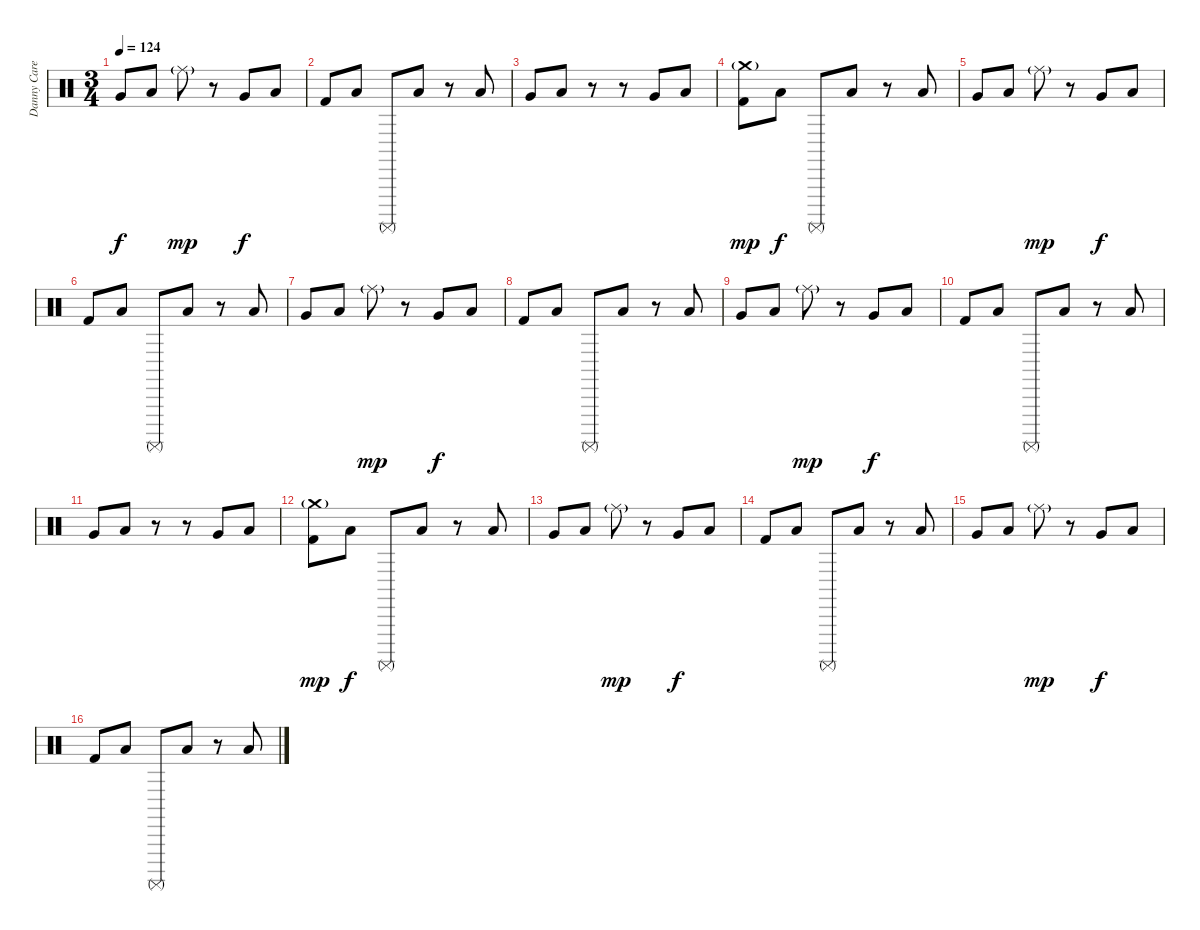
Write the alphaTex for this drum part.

\track ("Danny Carey" "Danny Care") {instrument percussion}
\staff {score}
\articulation defaults
\ts (3 4)
\tempo 124
\clef neutral
\ks c "Very Low Tom (hit)".8{dy f} "Low Tom (hit)".8 "Ride (middle)"{g}.8{dy mp}
r.8 "Very Low Tom (hit)".8{dy f} "Low Floor Tom (hit)".8 |
"Kick (hit) 2".8 "Low Tom (hit)".8 "Surdo (mute)".8 "Low Tom (hit)".8 r.8 "Low Tom (hit)".8 |
"Very Low Tom (hit)".8 "Low Tom (hit)".8 r.8 r.8 "Very Low Tom (hit)".8 "Low Floor Tom (hit)".8 |
("Crash medium (hit)"{g} "Kick (hit) 2").8{dy mp} "Low Tom (hit)".8{dy f} "Surdo (mute)".8 "Low Tom (hit)".8 r.8 "Low Tom (hit)".8 |
"Very Low Tom (hit)".8 "Low Tom (hit)".8 "Ride (middle)"{g}.8{dy mp} r.8 "Very Low Tom (hit)".8{dy f} "Low Floor Tom (hit)".8 |
"Kick (hit) 2".8 "Low Tom (hit)".8 "Surdo (mute)".8 "Low Tom (hit)".8 r.8 "Low Tom (hit)".8 |
"Very Low Tom (hit)".8 "Low Tom (hit)".8 "Ride (middle)"{g}.8{dy mp} r.8 "Very Low Tom (hit)".8{dy f} "Low Floor Tom (hit)".8 |
"Kick (hit) 2".8 "Low Tom (hit)".8 "Surdo (mute)".8 "Low Tom (hit)".8 r.8 "Low Tom (hit)".8 |
"Very Low Tom (hit)".8 "Low Tom (hit)".8 "Ride (middle)"{g}.8{dy mp} r.8 "Very Low Tom (hit)".8{dy f} "Low Floor Tom (hit)".8 |
"Kick (hit) 2".8 "Low Tom (hit)".8 "Surdo (mute)".8 "Low Tom (hit)".8 r.8 "Low Tom (hit)".8 |
"Very Low Tom (hit)".8 "Low Tom (hit)".8 r.8 r.8 "Very Low Tom (hit)".8 "Low Floor Tom (hit)".8 |
("Crash medium (hit)"{g} "Kick (hit) 2").8{dy mp} "Low Tom (hit)".8{dy f} "Surdo (mute)".8 "Low Tom (hit)".8 r.8 "Low Tom (hit)".8 |
"Very Low Tom (hit)".8 "Low Tom (hit)".8 "Ride (middle)"{g}.8{dy mp} r.8 "Very Low Tom (hit)".8{dy f} "Low Floor Tom (hit)".8 |
"Kick (hit) 2".8 "Low Tom (hit)".8 "Surdo (mute)".8 "Low Tom (hit)".8 r.8 "Low Tom (hit)".8 |
"Very Low Tom (hit)".8 "Low Tom (hit)".8 "Ride (middle)"{g}.8{dy mp} r.8 "Very Low Tom (hit)".8{dy f} "Low Floor Tom (hit)".8 |
"Kick (hit) 2".8 "Low Tom (hit)".8 "Surdo (mute)".8 "Low Tom (hit)".8 r.8 "Low Tom (hit)".8
